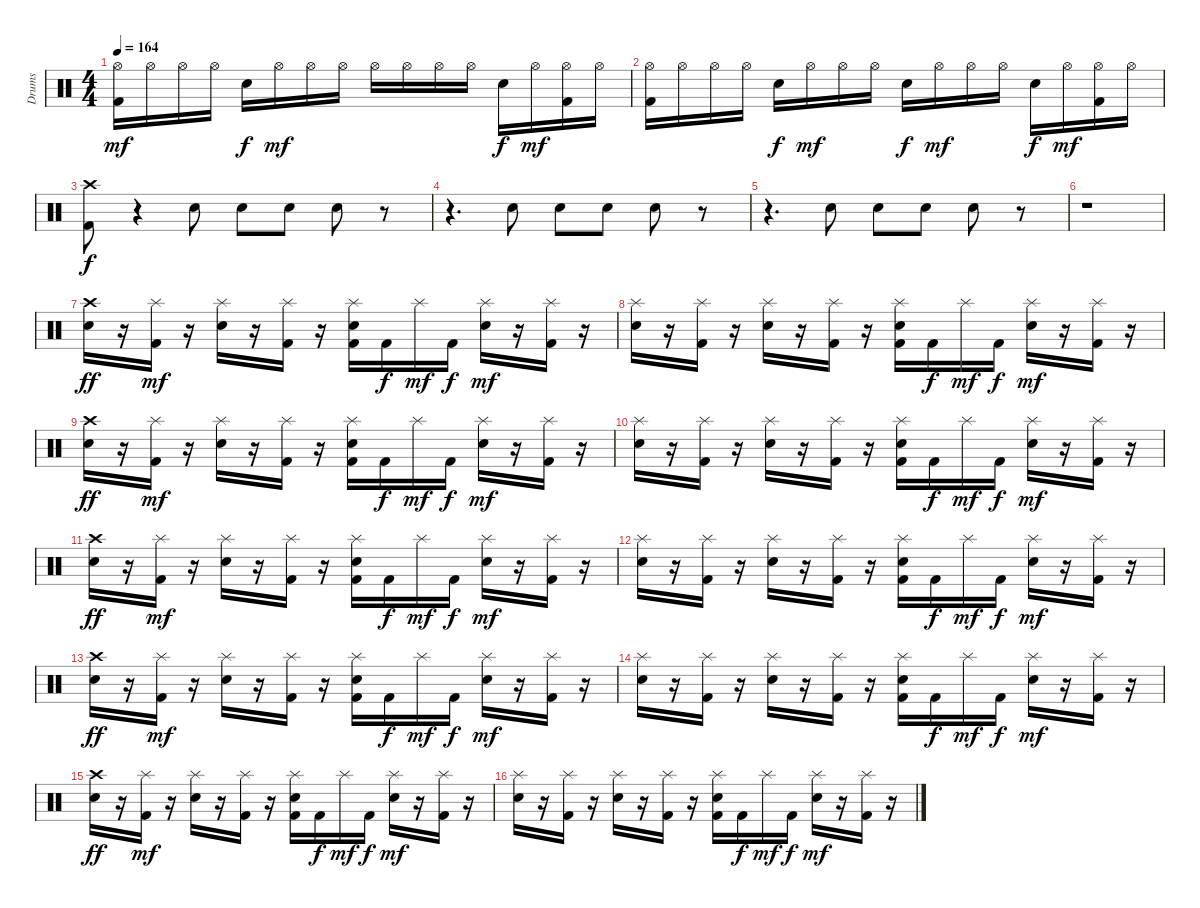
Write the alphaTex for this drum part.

\track ("Drums" "Drums") {instrument percussion}
\staff {score}
\articulation defaults
\ts (4 4)
\tempo 164
\clef neutral
\ks c
("Hi-Hat (open)" "Kick (hit) 2").16{dy mf} "Hi-Hat (open)".16 "Hi-Hat (open)".16 "Hi-Hat (open)".16 "Snare (hit) 2".16{dy f} "Hi-Hat (open)".16{dy mf} "Hi-Hat (open)".16 "Hi-Hat (open)".16 "Hi-Hat (open)".16 "Hi-Hat (open)".16 "Hi-Hat (open)".16 "Hi-Hat (open)".16 "Snare (hit) 2".16{dy f} "Hi-Hat (open)".16{dy mf} ("Hi-Hat (open)" "Kick (hit) 2").16 "Hi-Hat (open)".16 |
("Hi-Hat (open)" "Kick (hit) 2").16 "Hi-Hat (open)".16 "Hi-Hat (open)".16 "Hi-Hat (open)".16 "Snare (hit) 2".16{dy f} "Hi-Hat (open)".16{dy mf} "Hi-Hat (open)".16 "Hi-Hat (open)".16 "Snare (hit) 2".16{dy f} "Hi-Hat (open)".16{dy mf} "Hi-Hat (open)".16 "Hi-Hat (open)".16 "Snare (hit) 2".16{dy f} "Hi-Hat (open)".16{dy mf} ("Hi-Hat (open)" "Kick (hit) 2").16 "Hi-Hat (open)".16 |
("Crash high (hit)" "Kick (hit) 2").8{dy f} r.4 "Snare (hit) 2".8 "Snare (hit) 2".8 "Snare (hit) 2".8 "Snare (hit) 2".8 r.8 |
r.4{d} "Snare (hit) 2".8 "Snare (hit) 2".8 "Snare (hit) 2".8 "Snare (hit) 2".8 r.8 |
r.4{d} "Snare (hit) 2".8 "Snare (hit) 2".8 "Snare (hit) 2".8 "Snare (hit) 2".8 r.8 |
r.1 |
("Crash high (hit)" "Snare (hit) 2").16{dy ff} r.16 ("Splash (hit)" "Kick (hit) 2").16{dy mf} r.16 ("Splash (hit)" "Snare (hit) 2").16 r.16 ("Splash (hit)" "Kick (hit) 2").16 r.16 ("Splash (hit)" "Snare (hit) 2" "Kick (hit) 2").16 "Kick (hit) 2".16{dy f} "Splash (hit)".16{dy mf} "Kick (hit) 2".16{dy f} ("Splash (hit)" "Snare (hit) 2").16{dy mf} r.16 ("Splash (hit)" "Kick (hit) 2").16 r.16 |
("Splash (hit)" "Snare (hit) 2").16 r.16 ("Splash (hit)" "Kick (hit) 2").16 r.16 ("Splash (hit)" "Snare (hit) 2").16 r.16 ("Splash (hit)" "Kick (hit) 2").16 r.16 ("Splash (hit)" "Snare (hit) 2" "Kick (hit) 2").16 "Kick (hit) 2".16{dy f} "Splash (hit)".16{dy mf} "Kick (hit) 2".16{dy f} ("Splash (hit)" "Snare (hit) 2").16{dy mf} r.16 ("Splash (hit)" "Kick (hit) 2").16 r.16 |
("Crash high (hit)" "Snare (hit) 2").16{dy ff} r.16 ("Splash (hit)" "Kick (hit) 2").16{dy mf} r.16 ("Splash (hit)" "Snare (hit) 2").16 r.16 ("Splash (hit)" "Kick (hit) 2").16 r.16 ("Splash (hit)" "Snare (hit) 2" "Kick (hit) 2").16 "Kick (hit) 2".16{dy f} "Splash (hit)".16{dy mf} "Kick (hit) 2".16{dy f} ("Splash (hit)" "Snare (hit) 2").16{dy mf} r.16 ("Splash (hit)" "Kick (hit) 2").16 r.16 |
("Splash (hit)" "Snare (hit) 2").16 r.16 ("Splash (hit)" "Kick (hit) 2").16 r.16 ("Splash (hit)" "Snare (hit) 2").16 r.16 ("Splash (hit)" "Kick (hit) 2").16 r.16 ("Splash (hit)" "Snare (hit) 2" "Kick (hit) 2").16 "Kick (hit) 2".16{dy f} "Splash (hit)".16{dy mf} "Kick (hit) 2".16{dy f} ("Splash (hit)" "Snare (hit) 2").16{dy mf} r.16 ("Splash (hit)" "Kick (hit) 2").16 r.16 |
("Crash high (hit)" "Snare (hit) 2").16{dy ff} r.16 ("Splash (hit)" "Kick (hit) 2").16{dy mf} r.16 ("Splash (hit)" "Snare (hit) 2").16 r.16 ("Splash (hit)" "Kick (hit) 2").16 r.16 ("Splash (hit)" "Snare (hit) 2" "Kick (hit) 2").16 "Kick (hit) 2".16{dy f} "Splash (hit)".16{dy mf} "Kick (hit) 2".16{dy f} ("Splash (hit)" "Snare (hit) 2").16{dy mf} r.16 ("Splash (hit)" "Kick (hit) 2").16 r.16 |
("Splash (hit)" "Snare (hit) 2").16 r.16 ("Splash (hit)" "Kick (hit) 2").16 r.16 ("Splash (hit)" "Snare (hit) 2").16 r.16 ("Splash (hit)" "Kick (hit) 2").16 r.16 ("Splash (hit)" "Snare (hit) 2" "Kick (hit) 2").16 "Kick (hit) 2".16{dy f} "Splash (hit)".16{dy mf} "Kick (hit) 2".16{dy f} ("Splash (hit)" "Snare (hit) 2").16{dy mf} r.16 ("Splash (hit)" "Kick (hit) 2").16 r.16 |
("Crash high (hit)" "Snare (hit) 2").16{dy ff} r.16 ("Splash (hit)" "Kick (hit) 2").16{dy mf} r.16 ("Splash (hit)" "Snare (hit) 2").16 r.16 ("Splash (hit)" "Kick (hit) 2").16 r.16 ("Splash (hit)" "Snare (hit) 2" "Kick (hit) 2").16 "Kick (hit) 2".16{dy f} "Splash (hit)".16{dy mf} "Kick (hit) 2".16{dy f} ("Splash (hit)" "Snare (hit) 2").16{dy mf} r.16 ("Splash (hit)" "Kick (hit) 2").16 r.16 |
("Splash (hit)" "Snare (hit) 2").16 r.16 ("Splash (hit)" "Kick (hit) 2").16 r.16 ("Splash (hit)" "Snare (hit) 2").16 r.16 ("Splash (hit)" "Kick (hit) 2").16 r.16 ("Splash (hit)" "Snare (hit) 2" "Kick (hit) 2").16 "Kick (hit) 2".16{dy f} "Splash (hit)".16{dy mf} "Kick (hit) 2".16{dy f} ("Splash (hit)" "Snare (hit) 2").16{dy mf} r.16 ("Splash (hit)" "Kick (hit) 2").16 r.16 |
("Crash high (hit)" "Snare (hit) 2").16{dy ff} r.16 ("Splash (hit)" "Kick (hit) 2").16{dy mf} r.16 ("Splash (hit)" "Snare (hit) 2").16 r.16 ("Splash (hit)" "Kick (hit) 2").16 r.16 ("Splash (hit)" "Snare (hit) 2" "Kick (hit) 2").16 "Kick (hit) 2".16{dy f} "Splash (hit)".16{dy mf} "Kick (hit) 2".16{dy f} ("Splash (hit)" "Snare (hit) 2").16{dy mf} r.16 ("Splash (hit)" "Kick (hit) 2").16 r.16 |
("Splash (hit)" "Snare (hit) 2").16 r.16 ("Splash (hit)" "Kick (hit) 2").16 r.16 ("Splash (hit)" "Snare (hit) 2").16 r.16 ("Splash (hit)" "Kick (hit) 2").16 r.16 ("Splash (hit)" "Snare (hit) 2" "Kick (hit) 2").16 "Kick (hit) 2".16{dy f} "Splash (hit)".16{dy mf} "Kick (hit) 2".16{dy f} ("Splash (hit)" "Snare (hit) 2").16{dy mf} r.16 ("Splash (hit)" "Kick (hit) 2").16 r.16
